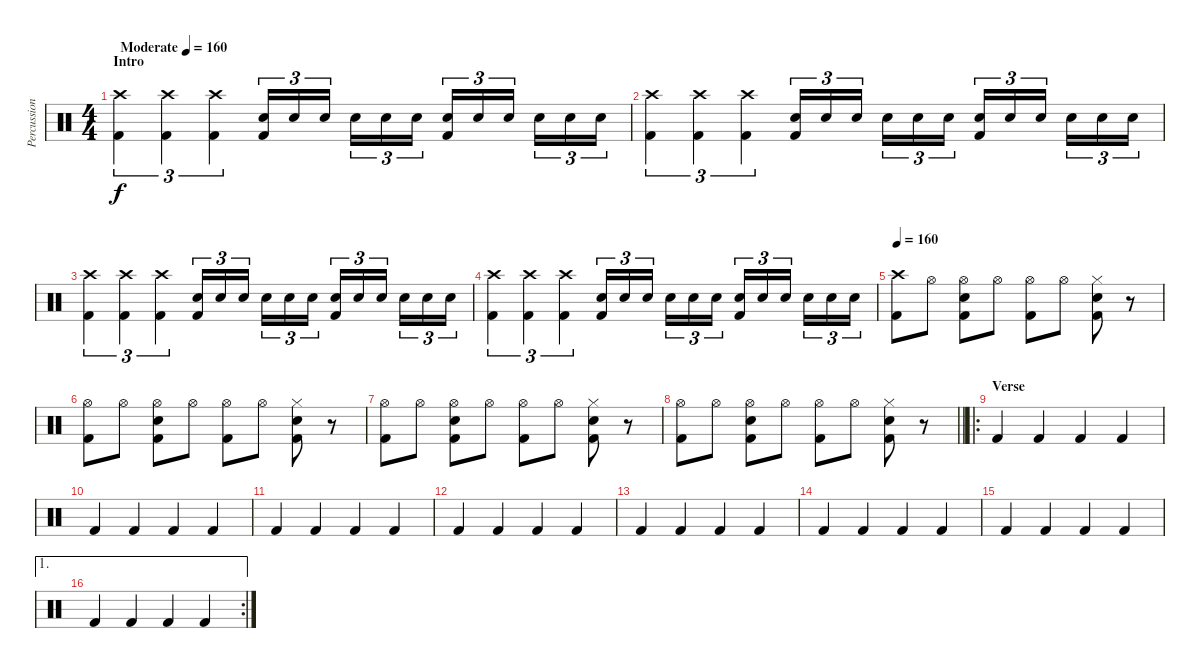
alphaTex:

\track ("Percussion" "Percussion") {instrument percussion}
\staff {score}
\articulation defaults
\ts (4 4)
\section ("" "Intro")
\tempo (160 "Moderate")
\tempo 130
\tempo (160 "Moderate")
\clef neutral
\ks c
("Crash high (hit)" "Kick (hit) 2").4{tu (3 2) dy f} ("Crash high (hit)" "Kick (hit) 2").4{tu (3 2)} ("Crash high (hit)" "Kick (hit) 2").4{tu (3 2)} ("Electric Snare (hit)" "Kick (hit) 2").16{tu (3 2)} "Electric Snare (hit)".16{tu (3 2)} "Electric Snare (hit)".16{tu (3 2) beam splitsecondary} "Electric Snare (hit)".16{tu (3 2)} "Electric Snare (hit)".16{tu (3 2)} "Electric Snare (hit)".16{tu (3 2)} ("Electric Snare (hit)" "Kick (hit) 2").16{tu (3 2)} "Electric Snare (hit)".16{tu (3 2)} "Electric Snare (hit)".16{tu (3 2) beam splitsecondary} "Electric Snare (hit)".16{tu (3 2)} "Electric Snare (hit)".16{tu (3 2)} "Electric Snare (hit)".16{tu (3 2)} |
("Crash high (hit)" "Kick (hit) 2").4{tu (3 2)} ("Crash high (hit)" "Kick (hit) 2").4{tu (3 2)} ("Crash high (hit)" "Kick (hit) 2").4{tu (3 2)} ("Electric Snare (hit)" "Kick (hit) 2").16{tu (3 2)} "Electric Snare (hit)".16{tu (3 2)} "Electric Snare (hit)".16{tu (3 2) beam splitsecondary} "Electric Snare (hit)".16{tu (3 2)} "Electric Snare (hit)".16{tu (3 2)} "Electric Snare (hit)".16{tu (3 2)} ("Electric Snare (hit)" "Kick (hit) 2").16{tu (3 2)} "Electric Snare (hit)".16{tu (3 2)} "Electric Snare (hit)".16{tu (3 2) beam splitsecondary} "Electric Snare (hit)".16{tu (3 2)} "Electric Snare (hit)".16{tu (3 2)} "Electric Snare (hit)".16{tu (3 2)} |
("Crash high (hit)" "Kick (hit) 2").4{tu (3 2)} ("Crash high (hit)" "Kick (hit) 2").4{tu (3 2)} ("Crash high (hit)" "Kick (hit) 2").4{tu (3 2)} ("Electric Snare (hit)" "Kick (hit) 2").16{tu (3 2)} "Electric Snare (hit)".16{tu (3 2)} "Electric Snare (hit)".16{tu (3 2) beam splitsecondary} "Electric Snare (hit)".16{tu (3 2)} "Electric Snare (hit)".16{tu (3 2)} "Electric Snare (hit)".16{tu (3 2)} ("Electric Snare (hit)" "Kick (hit) 2").16{tu (3 2)} "Electric Snare (hit)".16{tu (3 2)} "Electric Snare (hit)".16{tu (3 2) beam splitsecondary} "Electric Snare (hit)".16{tu (3 2)} "Electric Snare (hit)".16{tu (3 2)} "Electric Snare (hit)".16{tu (3 2)} |
("Crash high (hit)" "Kick (hit) 2").4{tu (3 2)} ("Crash high (hit)" "Kick (hit) 2").4{tu (3 2)} ("Crash high (hit)" "Kick (hit) 2").4{tu (3 2)} ("Electric Snare (hit)" "Kick (hit) 2").16{tu (3 2)} "Electric Snare (hit)".16{tu (3 2)} "Electric Snare (hit)".16{tu (3 2) beam splitsecondary} "Electric Snare (hit)".16{tu (3 2)} "Electric Snare (hit)".16{tu (3 2)} "Electric Snare (hit)".16{tu (3 2)} ("Electric Snare (hit)" "Kick (hit) 2").16{tu (3 2)} "Electric Snare (hit)".16{tu (3 2)} "Electric Snare (hit)".16{tu (3 2) beam splitsecondary} "Electric Snare (hit)".16{tu (3 2)} "Electric Snare (hit)".16{tu (3 2)} "Electric Snare (hit)".16{tu (3 2)} |
\tempo 160
("Crash high (hit)" "Kick (hit) 2").8 "Hi-Hat (open)".8 ("Hi-Hat (open)" "Electric Snare (hit)" "Kick (hit) 2").8 "Hi-Hat (open)".8 ("Hi-Hat (open)" "Kick (hit) 2").8 "Hi-Hat (open)".8 ("Hi-Hat (closed)" "Electric Snare (hit)" "Kick (hit) 2").8 r.8 |
("Hi-Hat (open)" "Kick (hit) 2").8 "Hi-Hat (open)".8 ("Hi-Hat (open)" "Electric Snare (hit)" "Kick (hit) 2").8 "Hi-Hat (open)".8 ("Hi-Hat (open)" "Kick (hit) 2").8 "Hi-Hat (open)".8 ("Hi-Hat (closed)" "Electric Snare (hit)" "Kick (hit) 2").8 r.8 |
("Hi-Hat (open)" "Kick (hit) 2").8 "Hi-Hat (open)".8 ("Hi-Hat (open)" "Electric Snare (hit)" "Kick (hit) 2").8 "Hi-Hat (open)".8 ("Hi-Hat (open)" "Kick (hit) 2").8 "Hi-Hat (open)".8 ("Hi-Hat (closed)" "Electric Snare (hit)" "Kick (hit) 2").8 r.8 |
\barLineRight lightlight
("Hi-Hat (open)" "Kick (hit) 2").8 "Hi-Hat (open)".8 ("Hi-Hat (open)" "Electric Snare (hit)" "Kick (hit) 2").8 "Hi-Hat (open)".8 ("Hi-Hat (open)" "Kick (hit) 2").8 "Hi-Hat (open)".8 ("Hi-Hat (closed)" "Electric Snare (hit)" "Kick (hit) 2").8 r.8 |
\ro
\section ("" "Verse")
"Kick (hit) 2".4 "Kick (hit) 2".4 "Kick (hit) 2".4 "Kick (hit) 2".4 |
"Kick (hit) 2".4 "Kick (hit) 2".4 "Kick (hit) 2".4 "Kick (hit) 2".4 |
"Kick (hit) 2".4 "Kick (hit) 2".4 "Kick (hit) 2".4 "Kick (hit) 2".4 |
"Kick (hit) 2".4 "Kick (hit) 2".4 "Kick (hit) 2".4 "Kick (hit) 2".4 |
"Kick (hit) 2".4 "Kick (hit) 2".4 "Kick (hit) 2".4 "Kick (hit) 2".4 |
"Kick (hit) 2".4 "Kick (hit) 2".4 "Kick (hit) 2".4 "Kick (hit) 2".4 |
"Kick (hit) 2".4 "Kick (hit) 2".4 "Kick (hit) 2".4 "Kick (hit) 2".4 |
\ae 1
\rc 2 "Kick (hit) 2".4 "Kick (hit) 2".4 "Kick (hit) 2".4 "Kick (hit) 2".4
